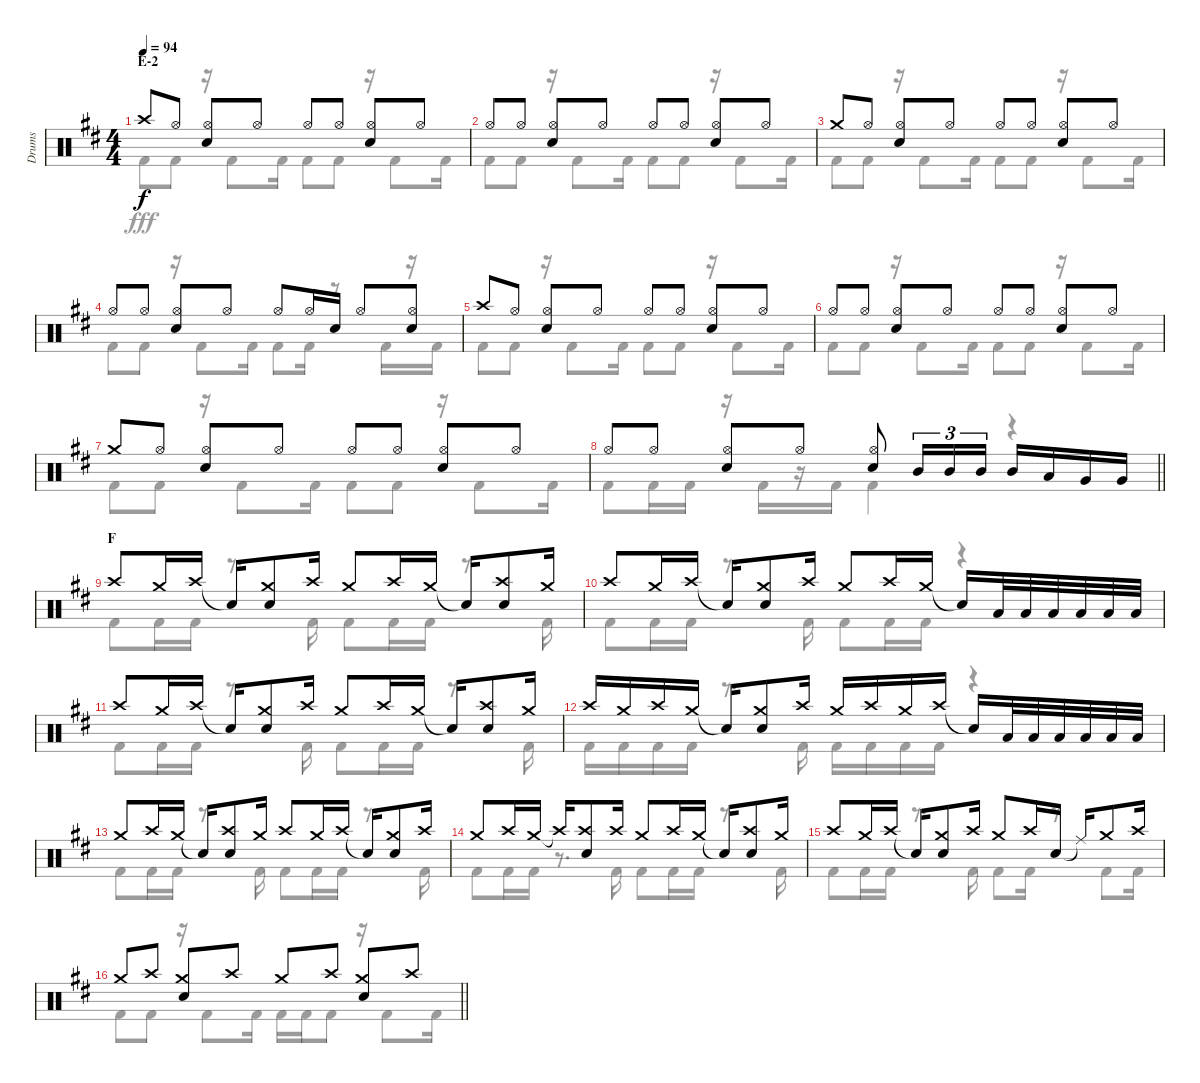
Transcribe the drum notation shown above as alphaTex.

\track ("Drums" "Drums") {instrument percussion}
\staff {score}
\articulation defaults
\voice
\ts (4 4)
\section ("" "E-2")
\tempo 94
\clef neutral
\ks d "Crash high (hit)".8{dy f} "Hi-Hat (open)".8
("Hi-Hat (open)" "Snare (hit) 2").8 "Hi-Hat (open)".8 "Hi-Hat (open)".8 "Hi-Hat (open)".8 ("Hi-Hat (open)" "Snare (hit) 2").8 "Hi-Hat (open)".8 |
"Hi-Hat (open)".8 "Hi-Hat (open)".8 ("Hi-Hat (open)" "Snare (hit) 2").8 "Hi-Hat (open)".8 "Hi-Hat (open)".8 "Hi-Hat (open)".8 ("Hi-Hat (open)" "Snare (hit) 2").8 "Hi-Hat (open)".8 |
"Crash medium (hit)".8 "Hi-Hat (open)".8 ("Hi-Hat (open)" "Snare (hit) 2").8 "Hi-Hat (open)".8 "Hi-Hat (open)".8 "Hi-Hat (open)".8 ("Hi-Hat (open)" "Snare (hit) 2").8 "Hi-Hat (open)".8 |
"Hi-Hat (open)".8 "Hi-Hat (open)".8 ("Hi-Hat (open)" "Snare (hit) 2").8 "Hi-Hat (open)".8 "Hi-Hat (open)".8 "Hi-Hat (open)".16 "Snare (hit) 2".16 "Hi-Hat (open)".8 ("Hi-Hat (open)" "Snare (hit) 2").8 |
"Crash high (hit)".8 "Hi-Hat (open)".8 ("Hi-Hat (open)" "Snare (hit) 2").8 "Hi-Hat (open)".8 "Hi-Hat (open)".8 "Hi-Hat (open)".8 ("Hi-Hat (open)" "Snare (hit) 2").8 "Hi-Hat (open)".8 |
"Hi-Hat (open)".8 "Hi-Hat (open)".8 ("Hi-Hat (open)" "Snare (hit) 2").8 "Hi-Hat (open)".8 "Hi-Hat (open)".8 "Hi-Hat (open)".8 ("Hi-Hat (open)" "Snare (hit) 2").8 "Hi-Hat (open)".8 |
"Crash medium (hit)".8 "Hi-Hat (open)".8 ("Hi-Hat (open)" "Snare (hit) 2").8 "Hi-Hat (open)".8 "Hi-Hat (open)".8 "Hi-Hat (open)".8 ("Hi-Hat (open)" "Snare (hit) 2").8 "Hi-Hat (open)".8 |
\barLineRight lightlight "Hi-Hat (open)".8 "Hi-Hat (open)".8
("Hi-Hat (open)" "Snare (hit) 2").8 "Hi-Hat (open)".8 ("Hi-Hat (open)" "Snare (hit) 2").8 "Mid Tom (hit)".16{tu (3 2)} "Mid Tom (hit)".16{tu (3 2)} "Mid Tom (hit)".16{tu (3 2)} "Mid Tom (hit)".16 "Low Tom (hit)".16 "Very Low Tom (hit)".16 "Very Low Tom (hit)".16 |
\section ("" "F")
"Crash high (hit)".8 "Crash medium (hit)".16 "Crash high (hit)".16 "Snare (hit)"{t}.16 ("Crash medium (hit)" "Snare (hit) 2").8 "Crash high (hit)".16 "Crash medium (hit)".8 "Crash high (hit)".16 "Crash medium (hit)".16 "Snare (hit)"{t}.16 ("Crash high (hit)" "Snare (hit) 2").8 "Crash medium (hit)".16 |
"Crash high (hit)".8 "Crash medium (hit)".16 "Crash high (hit)".16 "Snare (hit)"{t}.16 ("Crash medium (hit)" "Snare (hit) 2").8 "Crash high (hit)".16 "Crash medium (hit)".8 "Crash high (hit)".16 "Crash medium (hit)".16 "Snare (hit)"{t}.16 "Low Tom (hit)".32 "Low Tom (hit)".32 "Low Tom (hit)".32 "Low Tom (hit)".32 "Low Tom (hit)".32 "Low Tom (hit)".32 |
"Crash high (hit)".8 "Crash medium (hit)".16 "Crash high (hit)".16 "Snare (hit)"{t}.16 ("Crash medium (hit)" "Snare (hit) 2").8 "Crash high (hit)".16 "Crash medium (hit)".8 "Crash high (hit)".16 "Crash medium (hit)".16 "Snare (hit)"{t}.16 ("Crash high (hit)" "Snare (hit) 2").8 "Crash medium (hit)".16 |
"Crash high (hit)".16 "Crash medium (hit)".16 "Crash high (hit)".16 "Crash medium (hit)".16 "Snare (hit)"{t}.16 ("Crash medium (hit)" "Snare (hit) 2").8 "Crash high (hit)".16 "Crash medium (hit)".16 "Crash high (hit)".16 "Crash medium (hit)".16 "Crash high (hit)".16 "Snare (hit)"{t}.16 "Low Tom (hit)".32 "Low Tom (hit)".32 "Low Tom (hit)".32 "Low Tom (hit)".32 "Low Tom (hit)".32 "Low Tom (hit)".32 |
"Crash medium (hit)".8 "Crash high (hit)".16 "Crash medium (hit)".16 "Snare (hit)"{t}.16 ("Crash high (hit)" "Snare (hit) 2").8 "Crash medium (hit)".16 "Crash high (hit)".8 "Crash medium (hit)".16 "Crash high (hit)".16 "Snare (hit)"{t}.16 ("Crash medium (hit)" "Snare (hit) 2").8 "Crash high (hit)".16 |
"Crash medium (hit)".8 "Crash high (hit)".16 "Crash medium (hit)".16 "Crash high (hit)"{t}.16 ("Crash high (hit)" "Snare (hit) 2").8 "Crash high (hit)".16 "Crash medium (hit)".8 "Crash high (hit)".16 "Crash medium (hit)".16 "Snare (hit)"{t}.16 ("Crash high (hit)" "Snare (hit) 2").8 "Crash medium (hit)".16 |
"Crash high (hit)".8 "Crash medium (hit)".16 "Crash high (hit)".16 "Snare (hit)"{t}.16 ("Crash medium (hit)" "Snare (hit) 2").8 "Crash high (hit)".16 "Crash medium (hit)".8 "Crash high (hit)".16 "Snare (hit) 2".16 "Ride (middle)"{t}.16 "Crash medium (hit)".8 "Crash high (hit)".16 |
\barLineRight lightlight "Crash medium (hit)".8 "Crash high (hit)".8
("Crash medium (hit)" "Snare (hit) 2").8 "Crash high (hit)".8 "Crash medium (hit)".8 "Crash high (hit)".8 ("Crash medium (hit)" "Snare (hit) 2").8 "Crash high (hit)".8
\voice
\clef neutral
\ottava regular
\simile none
\ks d "Kick (hit) 2".8{dy fff} "Kick (hit) 2".8
r.16 "Kick (hit) 2".8 "Kick (hit) 2".16 "Kick (hit) 2".8 "Kick (hit) 2".8 r.16 "Kick (hit) 2".8 "Kick (hit) 2".16 |
"Kick (hit) 2".8 "Kick (hit) 2".8 r.16 "Kick (hit) 2".8 "Kick (hit) 2".16 "Kick (hit) 2".8 "Kick (hit) 2".8 r.16 "Kick (hit) 2".8 "Kick (hit) 2".16 |
"Kick (hit) 2".8 "Kick (hit) 2".8 r.16 "Kick (hit) 2".8 "Kick (hit) 2".16 "Kick (hit) 2".8 "Kick (hit) 2".8 r.16 "Kick (hit) 2".8 "Kick (hit) 2".16 |
"Kick (hit) 2".8 "Kick (hit) 2".8 r.16 "Kick (hit) 2".8 "Kick (hit) 2".16 "Kick (hit) 2".8 "Kick (hit) 2".16 r.8 "Kick (hit) 2".16 r.16 "Kick (hit) 2".16 |
"Kick (hit) 2".8 "Kick (hit) 2".8 r.16 "Kick (hit) 2".8 "Kick (hit) 2".16 "Kick (hit) 2".8 "Kick (hit) 2".8 r.16 "Kick (hit) 2".8 "Kick (hit) 2".16 |
"Kick (hit) 2".8 "Kick (hit) 2".8 r.16 "Kick (hit) 2".8 "Kick (hit) 2".16 "Kick (hit) 2".8 "Kick (hit) 2".8 r.16 "Kick (hit) 2".8 "Kick (hit) 2".16 |
"Kick (hit) 2".8 "Kick (hit) 2".8 r.16 "Kick (hit) 2".8 "Kick (hit) 2".16 "Kick (hit) 2".8 "Kick (hit) 2".8 r.16 "Kick (hit) 2".8 "Kick (hit) 2".16 |
\barLineRight lightlight "Kick (hit) 2".8 "Kick (hit) 2".16 "Kick (hit) 2".16
r.16 "Kick (hit) 2".16 r.16 "Kick (hit) 2".16 "Kick (hit) 2".4 r.4 |
"Kick (hit) 2".8 "Kick (hit) 2".16 "Kick (hit) 2".16 r.8{d} "Kick (hit) 2".16 "Kick (hit) 2".8 "Kick (hit) 2".16 "Kick (hit) 2".16 r.8{d} "Kick (hit) 2".16 |
"Kick (hit) 2".8 "Kick (hit) 2".16 "Kick (hit) 2".16 r.8{d} "Kick (hit) 2".16 "Kick (hit) 2".8 "Kick (hit) 2".16 "Kick (hit) 2".16 r.4 |
"Kick (hit) 2".8 "Kick (hit) 2".16 "Kick (hit) 2".16 r.8{d} "Kick (hit) 2".16 "Kick (hit) 2".8 "Kick (hit) 2".16 "Kick (hit) 2".16 r.8{d} "Kick (hit) 2".16 |
"Kick (hit) 2".16 "Kick (hit) 2".16 "Kick (hit) 2".16 "Kick (hit) 2".16 r.8{d} "Kick (hit) 2".16 "Kick (hit) 2".16 "Kick (hit) 2".16 "Kick (hit) 2".16 "Kick (hit) 2".16 r.4 |
"Kick (hit) 2".8 "Kick (hit) 2".16 "Kick (hit) 2".16 r.8{d} "Kick (hit) 2".16 "Kick (hit) 2".8 "Kick (hit) 2".16 "Kick (hit) 2".16 r.8{d} "Kick (hit) 2".16 |
"Kick (hit) 2".8 "Kick (hit) 2".16 "Kick (hit) 2".16 r.8{d} "Kick (hit) 2".16 "Kick (hit) 2".8 "Kick (hit) 2".16 "Kick (hit) 2".16 r.8{d} "Kick (hit) 2".16 |
"Kick (hit) 2".8 "Kick (hit) 2".16 "Kick (hit) 2".16 r.8{d} "Kick (hit) 2".16 "Kick (hit) 2".8 "Kick (hit) 2".16 r.8 "Kick (hit) 2".8 "Kick (hit) 2".16 |
\barLineRight lightlight "Kick (hit) 2".8 "Kick (hit) 2".8
r.16 "Kick (hit) 2".8 "Kick (hit) 2".16 "Kick (hit) 2".16 "Kick (hit) 2".16 "Kick (hit) 2".8 r.16 "Kick (hit) 2".8 "Kick (hit) 2".16
